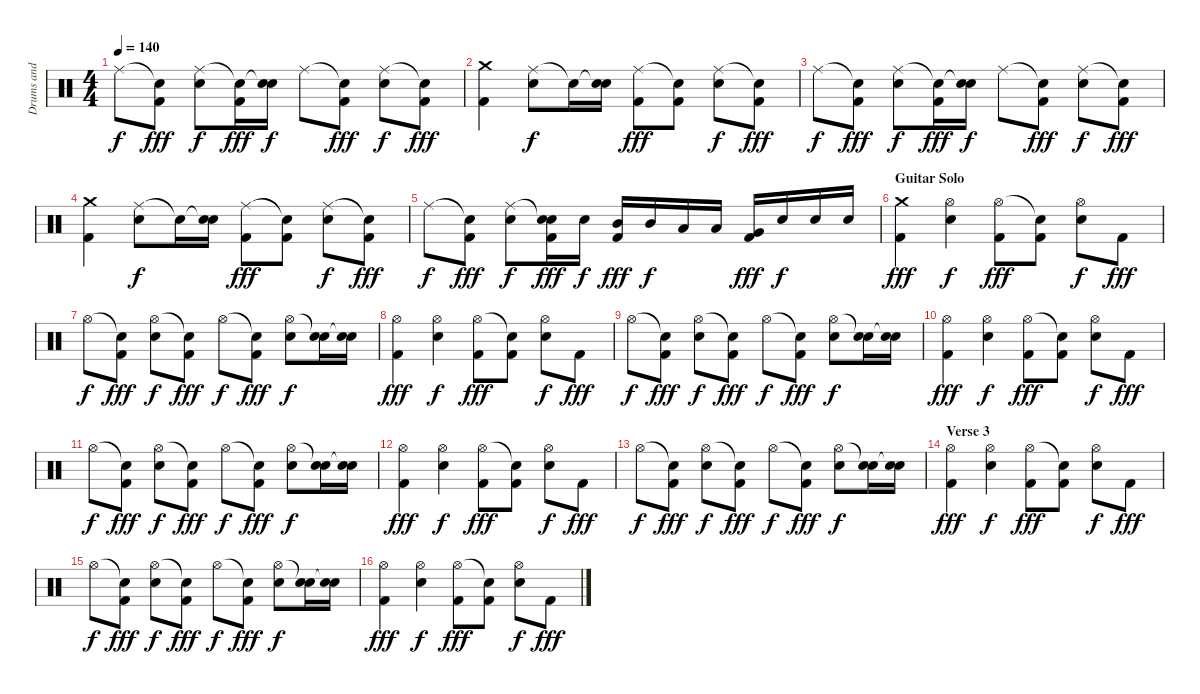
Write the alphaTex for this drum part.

\track ("Drums and Percussion" "Drums and ") {instrument percussion}
\staff {score}
\articulation defaults
\ts (4 4)
\tempo 140
\clef neutral
\ks c "Ride (middle)".8{dy f}
("Snare (hit)"{t} "Kick (hit) 2").8{dy fff} ("Ride (middle)" "Snare (hit) 2").8{dy f} ("Snare (hit)"{t} "Kick (hit) 2").16{dy fff} ("Snare (hit)"{t} "Snare (hit) 2").16{dy f} "Ride (middle)".8 ("Snare (hit)"{t} "Kick (hit) 2").8{dy fff} ("Ride (middle)" "Snare (hit) 2").8{dy f} ("Snare (hit)"{t} "Kick (hit) 2").8{dy fff} |
("Crash medium (hit)" "Kick (hit) 2").4 ("Ride (middle)" "Snare (hit) 2").8{dy f} "Snare (hit)"{t}.16 ("Snare (hit)"{t} "Snare (hit) 2").16 ("Ride (middle)" "Kick (hit) 2").8{dy fff} ("Snare (hit)"{t} "Kick (hit) 2").8 ("Ride (middle)" "Snare (hit) 2").8{dy f} ("Snare (hit)"{t} "Kick (hit) 2").8{dy fff} |
"Ride (middle)".8{dy f} ("Snare (hit)"{t} "Kick (hit) 2").8{dy fff} ("Ride (middle)" "Snare (hit) 2").8{dy f} ("Snare (hit)"{t} "Kick (hit) 2").16{dy fff} ("Snare (hit)"{t} "Snare (hit) 2").16{dy f} "Ride (middle)".8 ("Snare (hit)"{t} "Kick (hit) 2").8{dy fff} ("Ride (middle)" "Snare (hit) 2").8{dy f} ("Snare (hit)"{t} "Kick (hit) 2").8{dy fff} |
("Crash medium (hit)" "Kick (hit) 2").4 ("Ride (middle)" "Snare (hit) 2").8{dy f} "Snare (hit)"{t}.16 ("Snare (hit)"{t} "Snare (hit) 2").16 ("Ride (middle)" "Kick (hit) 2").8{dy fff} ("Snare (hit)"{t} "Kick (hit) 2").8 ("Ride (middle)" "Snare (hit) 2").8{dy f} ("Snare (hit)"{t} "Kick (hit) 2").8{dy fff} |
"Ride (middle)".8{dy f} ("Snare (hit)"{t} "Kick (hit) 2").8{dy fff} ("Ride (middle)" "Snare (hit) 2").8{dy f} ("Snare (hit)"{t} "Snare (hit) 2" "Kick (hit) 2").16{dy fff} "Snare (hit) 2".16{dy f} ("Mid Tom (hit)" "Kick (hit) 2").16{dy fff} "Mid Tom (hit)".16{dy f} "Low Tom (hit)".16 "Low Tom (hit)".16 ("Very Low Tom (hit)" "Kick (hit) 2").16{dy fff} "Snare (hit) 2".16{dy f} "Snare (hit) 2".16 "Snare (hit) 2".16 |
\section ("" "Guitar Solo")
("Crash medium (hit)" "Kick (hit) 2").4{dy fff} ("Hi-Hat (open)" "Snare (hit) 2").4{dy f} ("Hi-Hat (open)" "Kick (hit) 2").8{dy fff} ("Snare (hit)"{t} "Kick (hit) 2").8 ("Hi-Hat (open)" "Snare (hit) 2").8{dy f} "Kick (hit) 2".8{dy fff} |
"Hi-Hat (open)".8{dy f} ("Snare (hit)"{t} "Kick (hit) 2").8{dy fff} ("Hi-Hat (open)" "Snare (hit) 2").8{dy f} ("Snare (hit)"{t} "Kick (hit) 2").8{dy fff} "Hi-Hat (open)".8{dy f} ("Snare (hit)"{t} "Kick (hit) 2").8{dy fff} ("Hi-Hat (open)" "Snare (hit) 2").8{dy f} ("Snare (hit)"{t} "Snare (hit) 2").16 ("Snare (hit)"{t} "Snare (hit) 2").16 |
("Hi-Hat (open)" "Kick (hit) 2").4{dy fff} ("Hi-Hat (open)" "Snare (hit) 2").4{dy f} ("Hi-Hat (open)" "Kick (hit) 2").8{dy fff} ("Snare (hit)"{t} "Kick (hit) 2").8 ("Hi-Hat (open)" "Snare (hit) 2").8{dy f} "Kick (hit) 2".8{dy fff} |
"Hi-Hat (open)".8{dy f} ("Snare (hit)"{t} "Kick (hit) 2").8{dy fff} ("Hi-Hat (open)" "Snare (hit) 2").8{dy f} ("Snare (hit)"{t} "Kick (hit) 2").8{dy fff} "Hi-Hat (open)".8{dy f} ("Snare (hit)"{t} "Kick (hit) 2").8{dy fff} ("Hi-Hat (open)" "Snare (hit) 2").8{dy f} ("Snare (hit)"{t} "Snare (hit) 2").16 ("Snare (hit)"{t} "Snare (hit) 2").16 |
("Hi-Hat (open)" "Kick (hit) 2").4{dy fff} ("Hi-Hat (open)" "Snare (hit) 2").4{dy f} ("Hi-Hat (open)" "Kick (hit) 2").8{dy fff} ("Snare (hit)"{t} "Kick (hit) 2").8 ("Hi-Hat (open)" "Snare (hit) 2").8{dy f} "Kick (hit) 2".8{dy fff} |
"Hi-Hat (open)".8{dy f} ("Snare (hit)"{t} "Kick (hit) 2").8{dy fff} ("Hi-Hat (open)" "Snare (hit) 2").8{dy f} ("Snare (hit)"{t} "Kick (hit) 2").8{dy fff} "Hi-Hat (open)".8{dy f} ("Snare (hit)"{t} "Kick (hit) 2").8{dy fff} ("Hi-Hat (open)" "Snare (hit) 2").8{dy f} ("Snare (hit)"{t} "Snare (hit) 2").16 ("Snare (hit)"{t} "Snare (hit) 2").16 |
("Hi-Hat (open)" "Kick (hit) 2").4{dy fff} ("Hi-Hat (open)" "Snare (hit) 2").4{dy f} ("Hi-Hat (open)" "Kick (hit) 2").8{dy fff} ("Snare (hit)"{t} "Kick (hit) 2").8 ("Hi-Hat (open)" "Snare (hit) 2").8{dy f} "Kick (hit) 2".8{dy fff} |
"Hi-Hat (open)".8{dy f} ("Snare (hit)"{t} "Kick (hit) 2").8{dy fff} ("Hi-Hat (open)" "Snare (hit) 2").8{dy f} ("Snare (hit)"{t} "Kick (hit) 2").8{dy fff} "Hi-Hat (open)".8{dy f} ("Snare (hit)"{t} "Kick (hit) 2").8{dy fff} ("Hi-Hat (open)" "Snare (hit) 2").8{dy f} ("Snare (hit)"{t} "Snare (hit) 2").16 ("Snare (hit)"{t} "Snare (hit) 2").16 |
\section ("" "Verse 3")
("Hi-Hat (open)" "Kick (hit) 2").4{dy fff} ("Hi-Hat (open)" "Snare (hit) 2").4{dy f} ("Hi-Hat (open)" "Kick (hit) 2").8{dy fff} ("Snare (hit)"{t} "Kick (hit) 2").8 ("Hi-Hat (open)" "Snare (hit) 2").8{dy f} "Kick (hit) 2".8{dy fff} |
"Hi-Hat (open)".8{dy f} ("Snare (hit)"{t} "Kick (hit) 2").8{dy fff} ("Hi-Hat (open)" "Snare (hit) 2").8{dy f} ("Snare (hit)"{t} "Kick (hit) 2").8{dy fff} "Hi-Hat (open)".8{dy f} ("Snare (hit)"{t} "Kick (hit) 2").8{dy fff} ("Hi-Hat (open)" "Snare (hit) 2").8{dy f} ("Snare (hit)"{t} "Snare (hit) 2").16 ("Snare (hit)"{t} "Snare (hit) 2").16 |
("Hi-Hat (open)" "Kick (hit) 2").4{dy fff} ("Hi-Hat (open)" "Snare (hit) 2").4{dy f} ("Hi-Hat (open)" "Kick (hit) 2").8{dy fff} ("Snare (hit)"{t} "Kick (hit) 2").8 ("Hi-Hat (open)" "Snare (hit) 2").8{dy f} "Kick (hit) 2".8{dy fff}
